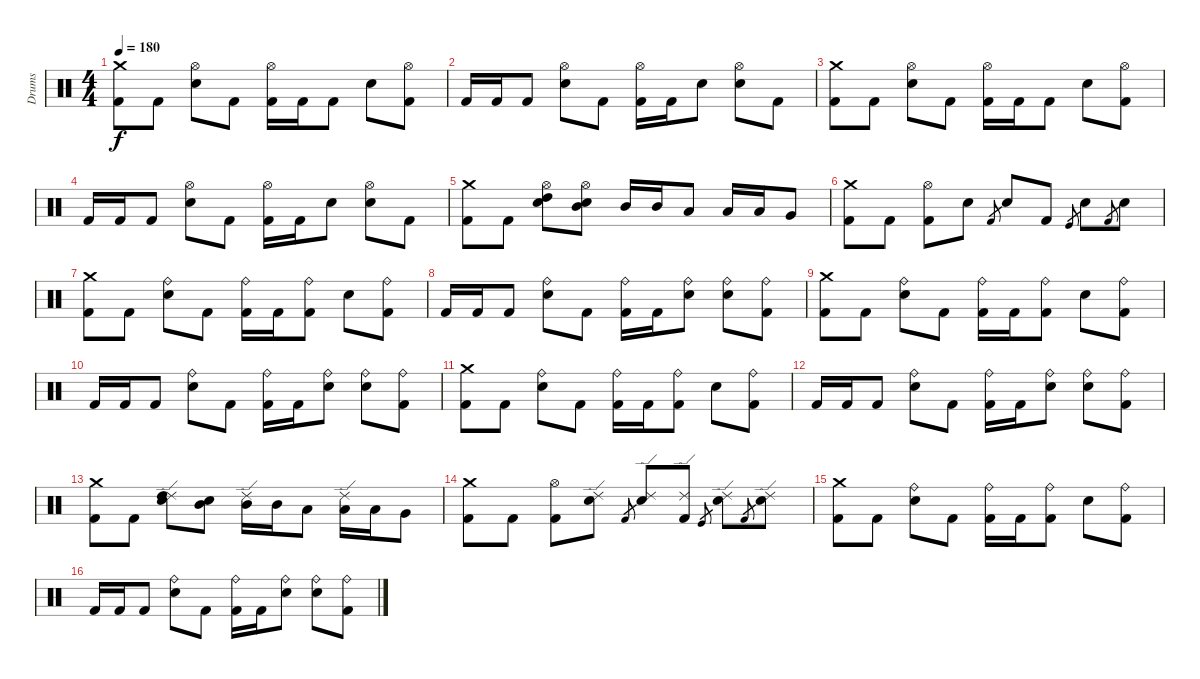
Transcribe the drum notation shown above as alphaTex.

\track ("Drums" "Drums") {instrument percussion}
\staff {score}
\articulation defaults
\ts (4 4)
\tempo 180
\clef neutral
\ks c
("Crash medium (hit)" "Kick (hit) 2").8{dy f} "Kick (hit) 2".8 ("Hi-Hat (open)" "Electric Snare (hit)").8 "Kick (hit) 2".8 ("Hi-Hat (open)" "Kick (hit) 2").16 "Kick (hit) 2".16 "Kick (hit) 2".8 "Electric Snare (hit)".8 ("Hi-Hat (open)" "Kick (hit) 2").8 |
"Kick (hit) 2".16 "Kick (hit) 2".16 "Kick (hit) 2".8 ("Hi-Hat (open)" "Electric Snare (hit)").8 "Kick (hit) 2".8 ("Hi-Hat (open)" "Kick (hit) 2").16 "Kick (hit) 2".16 "Electric Snare (hit)".8 ("Hi-Hat (open)" "Snare (hit) 2").8 "Kick (hit) 2".8 |
("Crash medium (hit)" "Kick (hit) 2").8 "Kick (hit) 2".8 ("Hi-Hat (open)" "Electric Snare (hit)").8 "Kick (hit) 2".8 ("Hi-Hat (open)" "Kick (hit) 2").16 "Kick (hit) 2".16 "Kick (hit) 2".8 "Electric Snare (hit)".8 ("Hi-Hat (open)" "Kick (hit) 2").8 |
"Kick (hit) 2".16 "Kick (hit) 2".16 "Kick (hit) 2".8 ("Hi-Hat (open)" "Electric Snare (hit)").8 "Kick (hit) 2".8 ("Hi-Hat (open)" "Kick (hit) 2").16 "Kick (hit) 2".16 "Electric Snare (hit)".8 ("Hi-Hat (open)" "Snare (hit) 2").8 "Kick (hit) 2".8 |
("Crash medium (hit)" "Kick (hit) 2").8 "Kick (hit) 2".8 ("Hi-Hat (open)" "High Tom (hit)" "Electric Snare (hit)").8 ("Hi-Hat (open)" "Mid Tom (hit)" "Electric Snare (hit)").8 "Mid Tom (hit)".16 "Mid Tom (hit)".16 "Low Tom (hit)".8 "Low Tom (hit)".16 "Low Tom (hit)".16 "Very Low Tom (hit)".8 |
("Kick (hit) 2" "Crash medium (hit)").8 "Kick (hit) 2".8 ("Kick (hit) 2" "Hi-Hat (open)").8 "Electric Snare (hit)".8 "Kick (hit) 2".8{gr} "Electric Snare (hit)".8 "Kick (hit) 2".8 "Kick (hit)".8{gr} "Snare (hit) 2".8 "Kick (hit) 2".8{gr} "Electric Snare (hit)".8 |
("Crash medium (hit)" "Kick (hit) 2").8 "Kick (hit) 2".8 ("Ride (bell)" "Electric Snare (hit)").8 "Kick (hit) 2".8 ("Ride (bell)" "Kick (hit) 2").16 "Kick (hit) 2".16 ("Ride (bell)" "Kick (hit) 2").8 "Electric Snare (hit)".8 ("Ride (bell)" "Kick (hit) 2").8 |
"Kick (hit) 2".16 "Kick (hit) 2".16 "Kick (hit) 2".8 ("Ride (bell)" "Electric Snare (hit)").8 "Kick (hit) 2".8 ("Ride (bell)" "Kick (hit) 2").16 "Kick (hit) 2".16 ("Ride (bell)" "Electric Snare (hit)").8 ("Ride (bell)" "Snare (hit) 2").8 ("Ride (bell)" "Kick (hit) 2").8 |
("Crash medium (hit)" "Kick (hit) 2").8 "Kick (hit) 2".8 ("Ride (bell)" "Electric Snare (hit)").8 "Kick (hit) 2".8 ("Ride (bell)" "Kick (hit) 2").16 "Kick (hit) 2".16 ("Ride (bell)" "Kick (hit) 2").8 "Electric Snare (hit)".8 ("Ride (bell)" "Kick (hit) 2").8 |
"Kick (hit) 2".16 "Kick (hit) 2".16 "Kick (hit) 2".8 ("Ride (bell)" "Electric Snare (hit)").8 "Kick (hit) 2".8 ("Ride (bell)" "Kick (hit) 2").16 "Kick (hit) 2".16 ("Ride (bell)" "Electric Snare (hit)").8 ("Ride (bell)" "Snare (hit) 2").8 ("Ride (bell)" "Kick (hit) 2").8 |
("Crash medium (hit)" "Kick (hit) 2").8 "Kick (hit) 2".8 ("Ride (bell)" "Electric Snare (hit)").8 "Kick (hit) 2".8 ("Ride (bell)" "Kick (hit) 2").16 "Kick (hit) 2".16 ("Ride (bell)" "Kick (hit) 2").8 "Electric Snare (hit)".8 ("Ride (bell)" "Kick (hit) 2").8 |
"Kick (hit) 2".16 "Kick (hit) 2".16 "Kick (hit) 2".8 ("Ride (bell)" "Electric Snare (hit)").8 "Kick (hit) 2".8 ("Ride (bell)" "Kick (hit) 2").16 "Kick (hit) 2".16 ("Ride (bell)" "Electric Snare (hit)").8 ("Ride (bell)" "Snare (hit) 2").8 ("Ride (bell)" "Kick (hit) 2").8 |
("Crash medium (hit)" "Kick (hit) 2").8 "Kick (hit) 2".8 ("Ride (edge) 2" "High Tom (hit)" "Electric Snare (hit)").8 ("Mid Tom (hit)" "Electric Snare (hit)").8 ("Ride (edge) 2" "Mid Tom (hit)").16 "Mid Tom (hit)".16 "Low Tom (hit)".8 ("Ride (edge) 2" "Low Tom (hit)").16 "Low Tom (hit)".16 "Very Low Tom (hit)".8 |
("Kick (hit) 2" "Crash medium (hit)").8 "Kick (hit) 2".8 ("Kick (hit) 2" "Hi-Hat (open)").8 ("Ride (edge) 2" "Electric Snare (hit)").8 "Kick (hit) 2".8{gr} ("Ride (edge) 2" "Electric Snare (hit)").8 ("Ride (edge) 2" "Kick (hit) 2").8 "Kick (hit)".8{gr} ("Ride (edge) 2" "Snare (hit) 2").8 "Kick (hit) 2".8{gr} ("Ride (edge) 2" "Electric Snare (hit)").8 |
("Crash medium (hit)" "Kick (hit) 2").8 "Kick (hit) 2".8 ("Ride (bell)" "Electric Snare (hit)").8 "Kick (hit) 2".8 ("Ride (bell)" "Kick (hit) 2").16 "Kick (hit) 2".16 ("Ride (bell)" "Kick (hit) 2").8 "Electric Snare (hit)".8 ("Ride (bell)" "Kick (hit) 2").8 |
"Kick (hit) 2".16 "Kick (hit) 2".16 "Kick (hit) 2".8 ("Ride (bell)" "Electric Snare (hit)").8 "Kick (hit) 2".8 ("Ride (bell)" "Kick (hit) 2").16 "Kick (hit) 2".16 ("Ride (bell)" "Electric Snare (hit)").8 ("Ride (bell)" "Snare (hit) 2").8 ("Ride (bell)" "Kick (hit) 2").8
